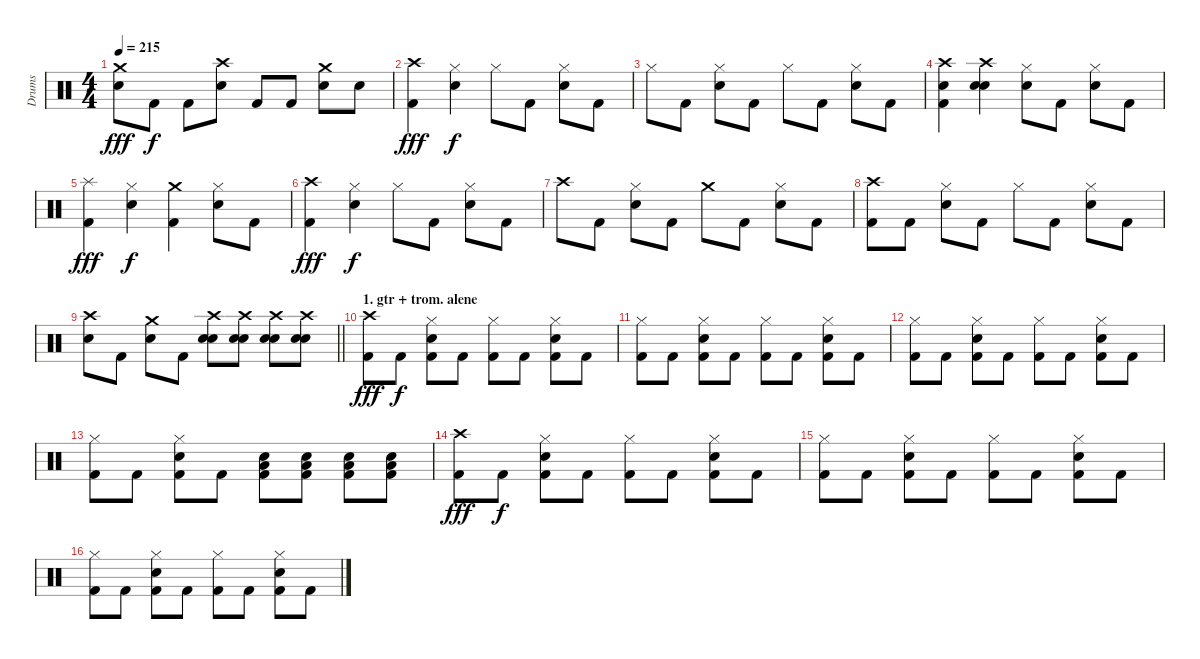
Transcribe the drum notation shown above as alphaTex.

\track ("Drums" "Drums") {instrument percussion}
\staff {score}
\articulation defaults
\ts (4 4)
\tempo 215
\clef neutral
\ks c
("Crash medium (hit)" "Snare (hit) 2").8{dy fff} "Kick (hit) 2".8{dy f} "Kick (hit) 2".8 ("Crash high (hit)" "Snare (hit) 2").8 "Kick (hit) 2".8 "Kick (hit) 2".8 ("Crash medium (hit)" "Snare (hit) 2").8 "Snare (hit) 2".8 |
("Crash high (hit)" "Kick (hit) 2").4{dy fff} ("Hi-Hat (closed)" "Snare (hit) 2").4{dy f} "Hi-Hat (closed)".8 "Kick (hit) 2".8 ("Hi-Hat (closed)" "Snare (hit) 2").8 "Kick (hit) 2".8 |
"Hi-Hat (closed)".8 "Kick (hit) 2".8 ("Hi-Hat (closed)" "Snare (hit) 2").8 "Kick (hit) 2".8 "Hi-Hat (closed)".8 "Kick (hit) 2".8 ("Hi-Hat (closed)" "Snare (hit) 2").8 "Kick (hit) 2".8 |
("Crash high (hit)" "Snare (hit) 2" "Kick (hit) 2").4 ("Crash high (hit)" "Snare (hit) 2" "Snare (hit) 2").4 ("Hi-Hat (closed)" "Snare (hit) 2").8 "Kick (hit) 2".8 ("Hi-Hat (closed)" "Snare (hit) 2").8 "Kick (hit) 2".8 |
("Splash (hit)" "Kick (hit) 2").4{dy fff} ("Hi-Hat (closed)" "Snare (hit) 2").4{dy f} ("Crash medium (hit)" "Kick (hit) 2").4 ("Hi-Hat (closed)" "Snare (hit) 2").8 "Kick (hit) 2".8 |
("Crash high (hit)" "Kick (hit) 2").4{dy fff} ("Hi-Hat (closed)" "Snare (hit) 2").4{dy f} "Hi-Hat (closed)".8 "Kick (hit) 2".8 ("Hi-Hat (closed)" "Snare (hit) 2").8 "Kick (hit) 2".8 |
"Crash high (hit)".8 "Kick (hit) 2".8 ("Hi-Hat (closed)" "Snare (hit) 2").8 "Kick (hit) 2".8 "Crash medium (hit)".8 "Kick (hit) 2".8 ("Hi-Hat (closed)" "Snare (hit) 2").8 "Kick (hit) 2".8 |
("Crash high (hit)" "Kick (hit) 2").8 "Kick (hit) 2".8 ("Hi-Hat (closed)" "Snare (hit) 2").8 "Kick (hit) 2".8 "Hi-Hat (closed)".8 "Kick (hit) 2".8 ("Hi-Hat (closed)" "Snare (hit) 2").8 "Kick (hit) 2".8 |
\barLineRight lightlight
("Crash high (hit)" "Snare (hit) 2").8 "Kick (hit) 2".8 ("Crash medium (hit)" "Snare (hit) 2").8 "Kick (hit) 2".8 ("Crash high (hit)" "Snare (hit) 2" "Snare (hit) 2").8 ("Crash high (hit)" "Snare (hit) 2" "Snare (hit) 2").8 ("Crash high (hit)" "Snare (hit) 2" "Snare (hit) 2").8 ("Crash high (hit)" "Snare (hit) 2" "Snare (hit) 2").8 |
\section ("" "1. gtr + trom. alene")
("Crash high (hit)" "Kick (hit) 2").8{dy fff} "Kick (hit) 2".8{dy f} ("Hi-Hat (closed)" "Snare (hit) 2" "Kick (hit) 2").8 "Kick (hit) 2".8 ("Hi-Hat (closed)" "Kick (hit) 2").8 "Kick (hit) 2".8 ("Hi-Hat (closed)" "Snare (hit) 2" "Kick (hit) 2").8 "Kick (hit) 2".8 |
("Hi-Hat (closed)" "Kick (hit) 2").8 "Kick (hit) 2".8 ("Hi-Hat (closed)" "Snare (hit) 2" "Kick (hit) 2").8 "Kick (hit) 2".8 ("Hi-Hat (closed)" "Kick (hit) 2").8 "Kick (hit) 2".8 ("Hi-Hat (closed)" "Snare (hit) 2" "Kick (hit) 2").8 "Kick (hit) 2".8 |
("Hi-Hat (closed)" "Kick (hit) 2").8 "Kick (hit) 2".8 ("Hi-Hat (closed)" "Snare (hit) 2" "Kick (hit) 2").8 "Kick (hit) 2".8 ("Hi-Hat (closed)" "Kick (hit) 2").8 "Kick (hit) 2".8 ("Hi-Hat (closed)" "Snare (hit) 2" "Kick (hit) 2").8 "Kick (hit) 2".8 |
("Hi-Hat (closed)" "Kick (hit) 2").8 "Kick (hit) 2".8 ("Hi-Hat (closed)" "Snare (hit) 2" "Kick (hit) 2").8 "Kick (hit) 2".8 ("Low Tom (hit)" "Snare (hit) 2" "Kick (hit) 2").8 ("Low Tom (hit)" "Snare (hit) 2" "Kick (hit) 2").8 ("Low Tom (hit)" "Snare (hit) 2" "Kick (hit) 2").8 ("Low Tom (hit)" "Snare (hit) 2" "Kick (hit) 2").8 |
("Crash high (hit)" "Kick (hit) 2").8{dy fff} "Kick (hit) 2".8{dy f} ("Hi-Hat (closed)" "Snare (hit) 2" "Kick (hit) 2").8 "Kick (hit) 2".8 ("Hi-Hat (closed)" "Kick (hit) 2").8 "Kick (hit) 2".8 ("Hi-Hat (closed)" "Snare (hit) 2" "Kick (hit) 2").8 "Kick (hit) 2".8 |
("Hi-Hat (closed)" "Kick (hit) 2").8 "Kick (hit) 2".8 ("Hi-Hat (closed)" "Snare (hit) 2" "Kick (hit) 2").8 "Kick (hit) 2".8 ("Hi-Hat (closed)" "Kick (hit) 2").8 "Kick (hit) 2".8 ("Hi-Hat (closed)" "Snare (hit) 2" "Kick (hit) 2").8 "Kick (hit) 2".8 |
("Hi-Hat (closed)" "Kick (hit) 2").8 "Kick (hit) 2".8 ("Hi-Hat (closed)" "Snare (hit) 2" "Kick (hit) 2").8 "Kick (hit) 2".8 ("Hi-Hat (closed)" "Kick (hit) 2").8 "Kick (hit) 2".8 ("Hi-Hat (closed)" "Snare (hit) 2" "Kick (hit) 2").8 "Kick (hit) 2".8
